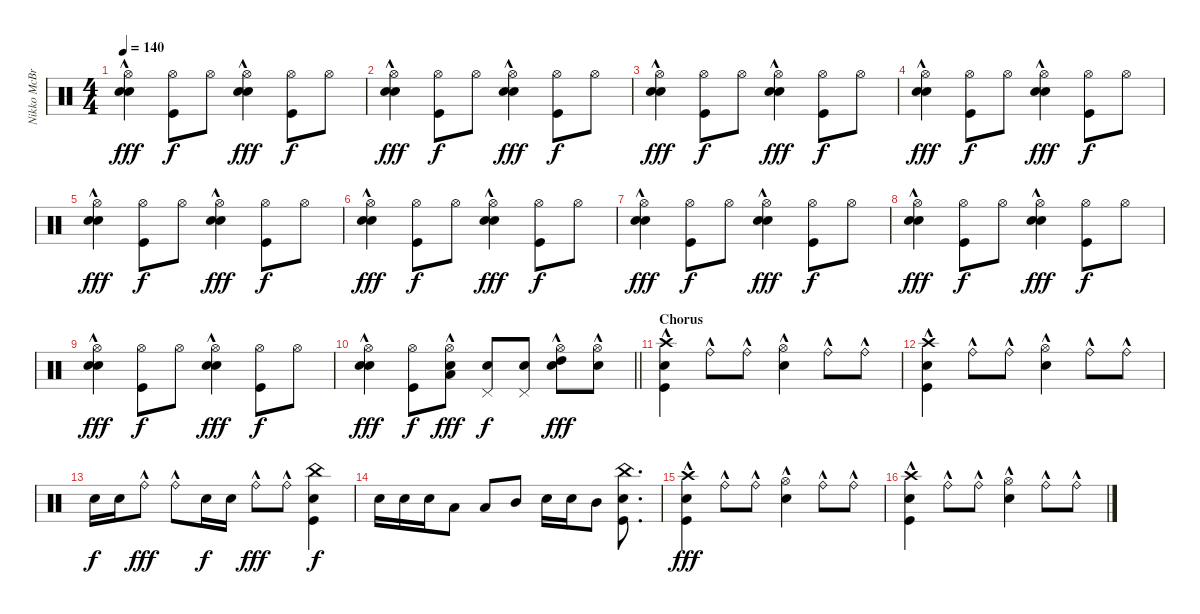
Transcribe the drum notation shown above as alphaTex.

\track ("Nikko McBrain" "Nikko McBr") {instrument percussion}
\staff {score}
\articulation defaults
\ts (4 4)
\tempo 140
\clef neutral
\ks c
("Hi-Hat (open)" "Snare (hit) 2"{hac} "Snare (hit) 2"{hac}).4{dy fff} ("Hi-Hat (open)" "Kick (hit)").8{dy f} "Hi-Hat (open)".8 ("Hi-Hat (open)" "Snare (hit) 2"{hac} "Snare (hit) 2"{hac}).4{dy fff} ("Hi-Hat (open)" "Kick (hit)").8{dy f} "Hi-Hat (open)".8 |
("Hi-Hat (open)" "Snare (hit) 2"{hac} "Snare (hit) 2"{hac}).4{dy fff} ("Hi-Hat (open)" "Kick (hit)").8{dy f} "Hi-Hat (open)".8 ("Hi-Hat (open)" "Snare (hit) 2"{hac} "Snare (hit) 2"{hac}).4{dy fff} ("Hi-Hat (open)" "Kick (hit)").8{dy f} "Hi-Hat (open)".8 |
("Hi-Hat (open)" "Snare (hit) 2"{hac} "Snare (hit) 2"{hac}).4{dy fff} ("Hi-Hat (open)" "Kick (hit)").8{dy f} "Hi-Hat (open)".8 ("Hi-Hat (open)" "Snare (hit) 2"{hac} "Snare (hit) 2"{hac}).4{dy fff} ("Hi-Hat (open)" "Kick (hit)").8{dy f} "Hi-Hat (open)".8 |
("Hi-Hat (open)" "Snare (hit) 2"{hac} "Snare (hit) 2"{hac}).4{dy fff} ("Hi-Hat (open)" "Kick (hit)").8{dy f} "Hi-Hat (open)".8 ("Hi-Hat (open)" "Snare (hit) 2"{hac} "Snare (hit) 2"{hac}).4{dy fff} ("Hi-Hat (open)" "Kick (hit)").8{dy f} "Hi-Hat (open)".8 |
("Hi-Hat (open)" "Snare (hit) 2"{hac} "Snare (hit) 2"{hac}).4{dy fff} ("Hi-Hat (open)" "Kick (hit)").8{dy f} "Hi-Hat (open)".8 ("Hi-Hat (open)" "Snare (hit) 2"{hac} "Snare (hit) 2"{hac}).4{dy fff} ("Hi-Hat (open)" "Kick (hit)").8{dy f} "Hi-Hat (open)".8 |
("Hi-Hat (open)" "Snare (hit) 2"{hac} "Snare (hit) 2"{hac}).4{dy fff} ("Hi-Hat (open)" "Kick (hit)").8{dy f} "Hi-Hat (open)".8 ("Hi-Hat (open)" "Snare (hit) 2"{hac} "Snare (hit) 2"{hac}).4{dy fff} ("Hi-Hat (open)" "Kick (hit)").8{dy f} "Hi-Hat (open)".8 |
("Hi-Hat (open)" "Snare (hit) 2"{hac} "Snare (hit) 2"{hac}).4{dy fff} ("Hi-Hat (open)" "Kick (hit)").8{dy f} "Hi-Hat (open)".8 ("Hi-Hat (open)" "Snare (hit) 2"{hac} "Snare (hit) 2"{hac}).4{dy fff} ("Hi-Hat (open)" "Kick (hit)").8{dy f} "Hi-Hat (open)".8 |
("Hi-Hat (open)" "Snare (hit) 2"{hac} "Snare (hit) 2"{hac}).4{dy fff} ("Hi-Hat (open)" "Kick (hit)").8{dy f} "Hi-Hat (open)".8 ("Hi-Hat (open)" "Snare (hit) 2"{hac} "Snare (hit) 2"{hac}).4{dy fff} ("Hi-Hat (open)" "Kick (hit)").8{dy f} "Hi-Hat (open)".8 |
("Hi-Hat (open)" "Snare (hit) 2"{hac} "Snare (hit) 2"{hac}).4{dy fff} ("Hi-Hat (open)" "Kick (hit)").8{dy f} "Hi-Hat (open)".8 ("Hi-Hat (open)" "Snare (hit) 2"{hac} "Snare (hit) 2"{hac}).4{dy fff} ("Hi-Hat (open)" "Kick (hit)").8{dy f} "Hi-Hat (open)".8 |
\barLineRight lightlight
("Hi-Hat (open)" "Snare (hit) 2"{hac} "Snare (hit) 2"{hac}).4{dy fff} ("Hi-Hat (open)" "Kick (hit)").8{dy f} ("Hi-Hat (open)"{hac} "Low Floor Tom (hit)"{hac} "Snare (hit) 2"{hac}).8{dy fff} ("Pedal Hi-Hat (hit)" "Snare (hit) 2").8{dy f} ("Pedal Hi-Hat (hit)" "Snare (hit) 2").8 ("Hi-Hat (open)"{hac} "High Tom (hit)"{hac} "Snare (hit) 2"{hac}).8{dy fff} ("Hi-Hat (open)"{hac} "Snare (hit) 2"{hac}).8 |
\section ("" "Chorus")
("Crash high (hit)"{hac} "Kick (hit)"{hac} "Snare (hit) 2"{hac}).4 "Ride (bell)"{hac}.8 "Ride (bell)"{hac}.8 ("Hi-Hat (open)" "Snare (hit) 2"{hac}).4 "Ride (bell)"{hac}.8 "Ride (bell)"{hac}.8 |
("Crash high (hit)"{hac} "Kick (hit)"{hac} "Snare (hit) 2"{hac}).4 "Ride (bell)"{hac}.8 "Ride (bell)"{hac}.8 ("Hi-Hat (open)" "Snare (hit) 2"{hac}).4 "Ride (bell)"{hac}.8 "Ride (bell)"{hac}.8 |
"Snare (hit) 2".16{dy f} "Snare (hit) 2".16 "Ride (bell)"{hac}.8{dy fff} "Ride (bell)"{hac}.8 "Snare (hit) 2".16{dy f} "Snare (hit) 2".16 "Ride (bell)"{hac}.8{dy fff} "Ride (bell)"{hac}.8 ("China (hit)" "Kick (hit)" "Snare (hit) 2").4{dy f} |
"Snare (hit) 2".16 "Snare (hit) 2".16 "Snare (hit) 2".16 "Low Floor Tom (hit)".8 "Low Floor Tom (hit)".8 "Mid Tom (hit)".8 "Snare (hit) 2".16 "Snare (hit) 2".16 "Mid Tom (hit)".8 ("China (hit)" "Snare (hit) 2" "Kick (hit)").8{d} |
("Crash high (hit)"{hac} "Kick (hit)"{hac} "Snare (hit) 2"{hac}).4{dy fff} "Ride (bell)"{hac}.8 "Ride (bell)"{hac}.8 ("Hi-Hat (open)" "Snare (hit) 2"{hac}).4 "Ride (bell)"{hac}.8 "Ride (bell)"{hac}.8 |
("Crash high (hit)"{hac} "Kick (hit)"{hac} "Snare (hit) 2"{hac}).4 "Ride (bell)"{hac}.8 "Ride (bell)"{hac}.8 ("Hi-Hat (open)" "Snare (hit) 2"{hac}).4 "Ride (bell)"{hac}.8 "Ride (bell)"{hac}.8
